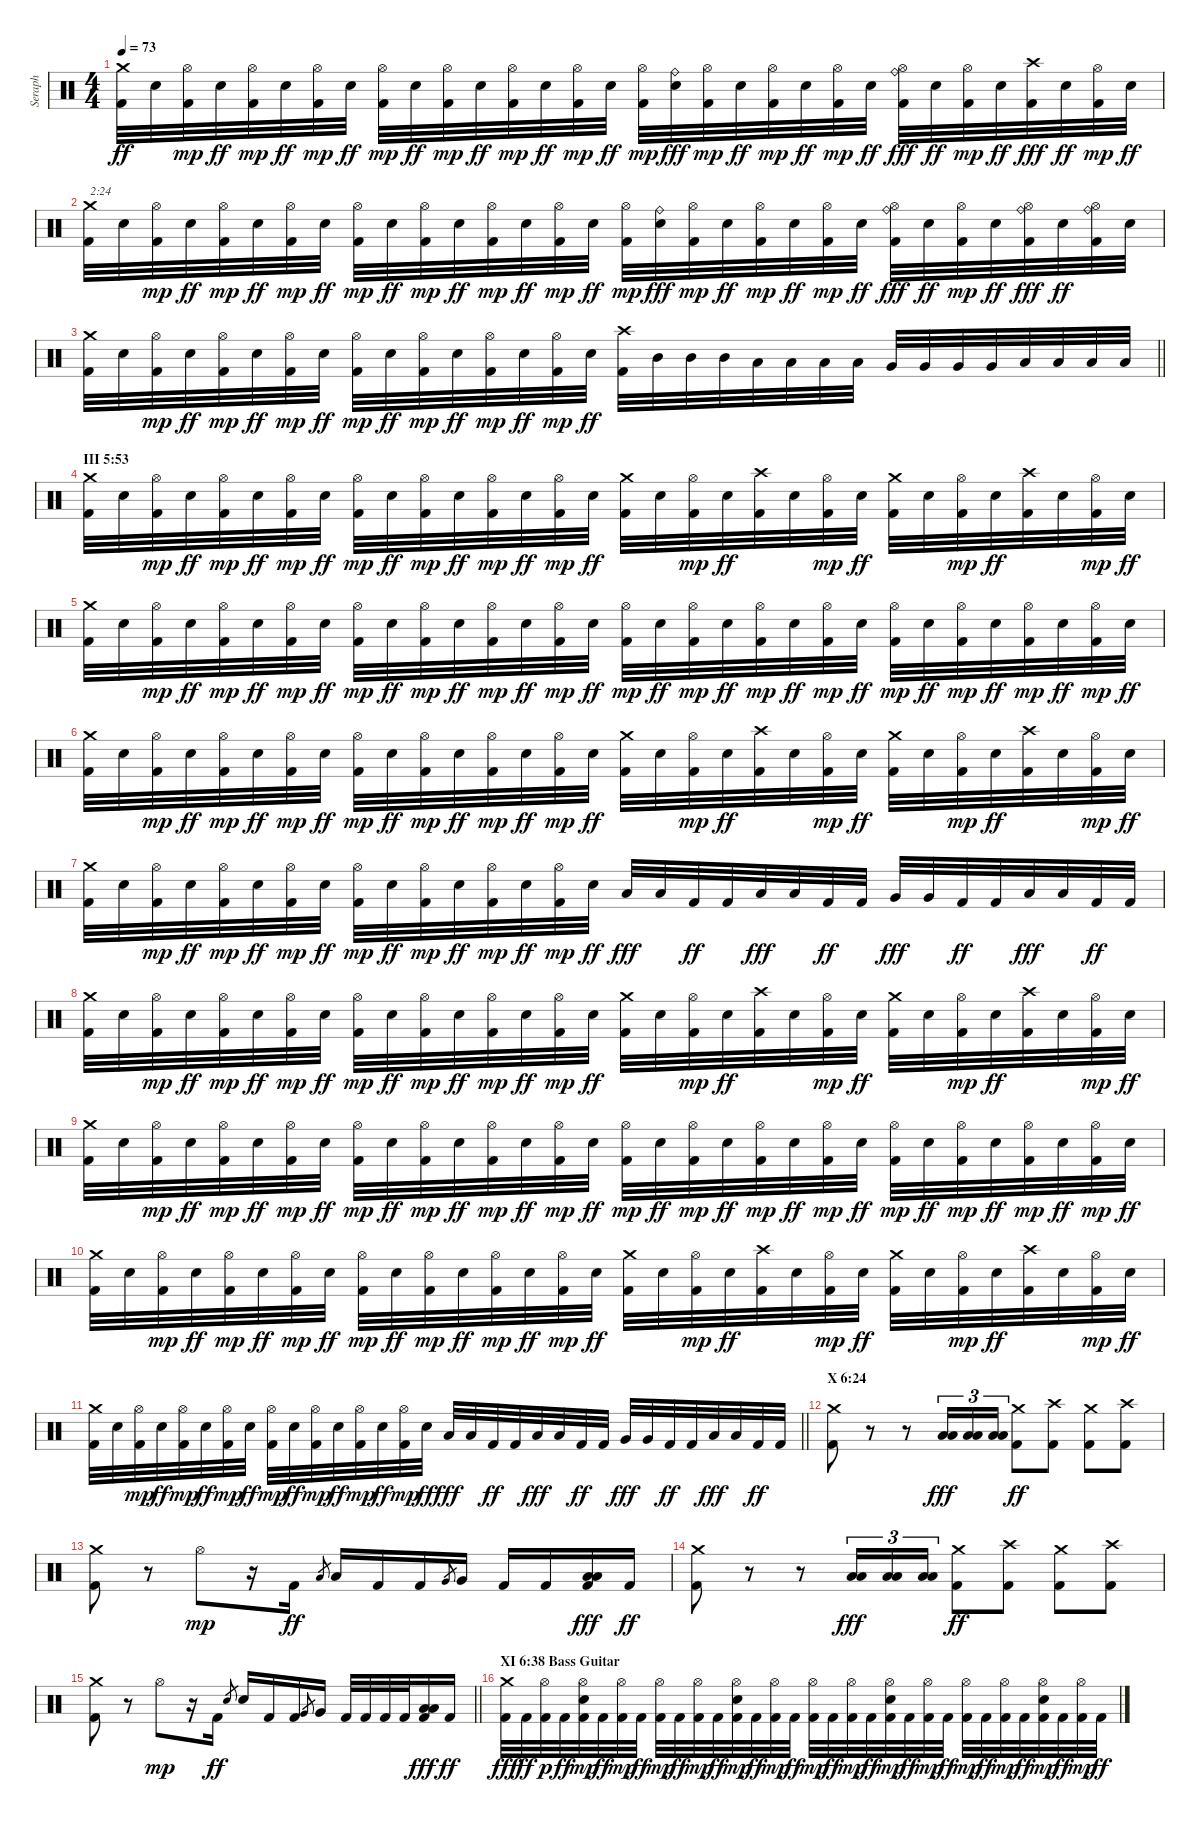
\track ("Seraph" "Seraph") {instrument percussion}
\staff {score}
\articulation defaults
\ts (4 4)
\tempo 73
\clef neutral
\ks c
("Kick (hit) 2" "Crash medium (hit)").32{dy ff} "Electric Snare (hit)".32 ("Kick (hit) 2" "Hi-Hat (open)").32{dy mp} "Electric Snare (hit)".32{dy ff} ("Kick (hit) 2" "Hi-Hat (open)").32{dy mp} "Electric Snare (hit)".32{dy ff} ("Kick (hit) 2" "Hi-Hat (open)").32{dy mp} "Electric Snare (hit)".32{dy ff} ("Kick (hit) 2" "Hi-Hat (open)").32{dy mp} "Electric Snare (hit)".32{dy ff} ("Kick (hit) 2" "Hi-Hat (open)").32{dy mp} "Electric Snare (hit)".32{dy ff} ("Kick (hit) 2" "Hi-Hat (open)").32{dy mp} "Electric Snare (hit)".32{dy ff} ("Kick (hit) 2" "Hi-Hat (open)").32{dy mp} "Electric Snare (hit)".32{dy ff} ("Kick (hit) 2" "Hi-Hat (open)").32{dy mp} ("Electric Snare (hit)" "Ride (bell)").32{dy fff} ("Kick (hit) 2" "Hi-Hat (open)").32{dy mp} "Electric Snare (hit)".32{dy ff} ("Kick (hit) 2" "Hi-Hat (open)").32{dy mp} "Electric Snare (hit)".32{dy ff} ("Kick (hit) 2" "Hi-Hat (open)").32{dy mp} "Electric Snare (hit)".32{dy ff} ("Kick (hit) 2" "Hi-Hat (open)" "Ride (bell)").32{dy fff} "Electric Snare (hit)".32{dy ff} ("Kick (hit) 2" "Hi-Hat (open)").32{dy mp} "Electric Snare (hit)".32{dy ff} ("Kick (hit) 2" "Crash high (hit)").32{dy fff} "Electric Snare (hit)".32{dy ff} ("Kick (hit) 2" "Hi-Hat (open)").32{dy mp} "Electric Snare (hit)".32{dy ff} |
("Kick (hit) 2" "Crash medium (hit)").32{txt "2:24"} "Electric Snare (hit)".32 ("Kick (hit) 2" "Hi-Hat (open)").32{dy mp} "Electric Snare (hit)".32{dy ff} ("Kick (hit) 2" "Hi-Hat (open)").32{dy mp} "Electric Snare (hit)".32{dy ff} ("Kick (hit) 2" "Hi-Hat (open)").32{dy mp} "Electric Snare (hit)".32{dy ff} ("Kick (hit) 2" "Hi-Hat (open)").32{dy mp} "Electric Snare (hit)".32{dy ff} ("Kick (hit) 2" "Hi-Hat (open)").32{dy mp} "Electric Snare (hit)".32{dy ff} ("Kick (hit) 2" "Hi-Hat (open)").32{dy mp} "Electric Snare (hit)".32{dy ff} ("Kick (hit) 2" "Hi-Hat (open)").32{dy mp} "Electric Snare (hit)".32{dy ff} ("Kick (hit) 2" "Hi-Hat (open)").32{dy mp} ("Electric Snare (hit)" "Ride (bell)").32{dy fff} ("Kick (hit) 2" "Hi-Hat (open)").32{dy mp} "Electric Snare (hit)".32{dy ff} ("Kick (hit) 2" "Hi-Hat (open)").32{dy mp} "Electric Snare (hit)".32{dy ff} ("Kick (hit) 2" "Hi-Hat (open)").32{dy mp} "Electric Snare (hit)".32{dy ff} ("Kick (hit) 2" "Hi-Hat (open)" "Ride (bell)").32{dy fff} "Electric Snare (hit)".32{dy ff} ("Kick (hit) 2" "Hi-Hat (open)").32{dy mp} "Electric Snare (hit)".32{dy ff} ("Kick (hit) 2" "Hi-Hat (open)" "Ride (bell)").32{dy fff} "Electric Snare (hit)".32{dy ff} ("Kick (hit) 2" "Hi-Hat (open)" "Ride (bell)").32 "Electric Snare (hit)".32 |
\barLineRight lightlight
("Kick (hit) 2" "Crash medium (hit)").32 "Electric Snare (hit)".32 ("Kick (hit) 2" "Hi-Hat (open)").32{dy mp} "Electric Snare (hit)".32{dy ff} ("Kick (hit) 2" "Hi-Hat (open)").32{dy mp} "Electric Snare (hit)".32{dy ff} ("Kick (hit) 2" "Hi-Hat (open)").32{dy mp} "Electric Snare (hit)".32{dy ff} ("Kick (hit) 2" "Hi-Hat (open)").32{dy mp} "Electric Snare (hit)".32{dy ff} ("Kick (hit) 2" "Hi-Hat (open)").32{dy mp} "Electric Snare (hit)".32{dy ff} ("Kick (hit) 2" "Hi-Hat (open)").32{dy mp} "Electric Snare (hit)".32{dy ff} ("Kick (hit) 2" "Hi-Hat (open)").32{dy mp} "Electric Snare (hit)".32{dy ff} ("Kick (hit) 2" "Crash high (hit)").32 "Mid Tom (hit)".32 "Mid Tom (hit)".32 "Mid Tom (hit)".32 "Low Tom (hit)".32 "Low Tom (hit)".32 "Low Tom (hit)".32 "Low Tom (hit)".32 "Very Low Tom (hit)".32 "Very Low Tom (hit)".32 "Very Low Tom (hit)".32 "Very Low Tom (hit)".32 "Low Floor Tom (hit)".32 "Low Floor Tom (hit)".32 "Low Floor Tom (hit)".32 "Low Floor Tom (hit)".32 |
\section ("" "III 5:53")
("Kick (hit) 2" "Crash medium (hit)").32 "Electric Snare (hit)".32 ("Kick (hit) 2" "Hi-Hat (open)").32{dy mp} "Electric Snare (hit)".32{dy ff} ("Kick (hit) 2" "Hi-Hat (open)").32{dy mp} "Electric Snare (hit)".32{dy ff} ("Kick (hit) 2" "Hi-Hat (open)").32{dy mp} "Electric Snare (hit)".32{dy ff} ("Kick (hit) 2" "Hi-Hat (open)").32{dy mp} "Electric Snare (hit)".32{dy ff} ("Kick (hit) 2" "Hi-Hat (open)").32{dy mp} "Electric Snare (hit)".32{dy ff} ("Kick (hit) 2" "Hi-Hat (open)").32{dy mp} "Electric Snare (hit)".32{dy ff} ("Kick (hit) 2" "Hi-Hat (open)").32{dy mp} "Electric Snare (hit)".32{dy ff} ("Kick (hit) 2" "Crash medium (hit)").32 "Electric Snare (hit)".32 ("Kick (hit) 2" "Hi-Hat (open)").32{dy mp} "Electric Snare (hit)".32{dy ff} ("Kick (hit) 2" "Crash high (hit)").32 "Electric Snare (hit)".32 ("Kick (hit) 2" "Hi-Hat (open)").32{dy mp} "Electric Snare (hit)".32{dy ff} ("Kick (hit) 2" "Crash medium (hit)").32 "Electric Snare (hit)".32 ("Kick (hit) 2" "Hi-Hat (open)").32{dy mp} "Electric Snare (hit)".32{dy ff} ("Kick (hit) 2" "Crash high (hit)").32 "Electric Snare (hit)".32 ("Kick (hit) 2" "Hi-Hat (open)").32{dy mp} "Electric Snare (hit)".32{dy ff} |
("Kick (hit) 2" "Crash medium (hit)").32 "Electric Snare (hit)".32 ("Kick (hit) 2" "Hi-Hat (open)").32{dy mp} "Electric Snare (hit)".32{dy ff} ("Kick (hit) 2" "Hi-Hat (open)").32{dy mp} "Electric Snare (hit)".32{dy ff} ("Kick (hit) 2" "Hi-Hat (open)").32{dy mp} "Electric Snare (hit)".32{dy ff} ("Kick (hit) 2" "Hi-Hat (open)").32{dy mp} "Electric Snare (hit)".32{dy ff} ("Kick (hit) 2" "Hi-Hat (open)").32{dy mp} "Electric Snare (hit)".32{dy ff} ("Kick (hit) 2" "Hi-Hat (open)").32{dy mp} "Electric Snare (hit)".32{dy ff} ("Kick (hit) 2" "Hi-Hat (open)").32{dy mp} "Electric Snare (hit)".32{dy ff} ("Kick (hit) 2" "Hi-Hat (open)").32{dy mp} "Electric Snare (hit)".32{dy ff} ("Kick (hit) 2" "Hi-Hat (open)").32{dy mp} "Electric Snare (hit)".32{dy ff} ("Kick (hit) 2" "Hi-Hat (open)").32{dy mp} "Electric Snare (hit)".32{dy ff} ("Kick (hit) 2" "Hi-Hat (open)").32{dy mp} "Electric Snare (hit)".32{dy ff} ("Kick (hit) 2" "Hi-Hat (open)").32{dy mp} "Electric Snare (hit)".32{dy ff} ("Kick (hit) 2" "Hi-Hat (open)").32{dy mp} "Electric Snare (hit)".32{dy ff} ("Kick (hit) 2" "Hi-Hat (open)").32{dy mp} "Electric Snare (hit)".32{dy ff} ("Kick (hit) 2" "Hi-Hat (open)").32{dy mp} "Electric Snare (hit)".32{dy ff} |
("Kick (hit) 2" "Crash medium (hit)").32 "Electric Snare (hit)".32 ("Kick (hit) 2" "Hi-Hat (open)").32{dy mp} "Electric Snare (hit)".32{dy ff} ("Kick (hit) 2" "Hi-Hat (open)").32{dy mp} "Electric Snare (hit)".32{dy ff} ("Kick (hit) 2" "Hi-Hat (open)").32{dy mp} "Electric Snare (hit)".32{dy ff} ("Kick (hit) 2" "Hi-Hat (open)").32{dy mp} "Electric Snare (hit)".32{dy ff} ("Kick (hit) 2" "Hi-Hat (open)").32{dy mp} "Electric Snare (hit)".32{dy ff} ("Kick (hit) 2" "Hi-Hat (open)").32{dy mp} "Electric Snare (hit)".32{dy ff} ("Kick (hit) 2" "Hi-Hat (open)").32{dy mp} "Electric Snare (hit)".32{dy ff} ("Kick (hit) 2" "Crash medium (hit)").32 "Electric Snare (hit)".32 ("Kick (hit) 2" "Hi-Hat (open)").32{dy mp} "Electric Snare (hit)".32{dy ff} ("Kick (hit) 2" "Crash high (hit)").32 "Electric Snare (hit)".32 ("Kick (hit) 2" "Hi-Hat (open)").32{dy mp} "Electric Snare (hit)".32{dy ff} ("Kick (hit) 2" "Crash medium (hit)").32 "Electric Snare (hit)".32 ("Kick (hit) 2" "Hi-Hat (open)").32{dy mp} "Electric Snare (hit)".32{dy ff} ("Kick (hit) 2" "Crash high (hit)").32 "Electric Snare (hit)".32 ("Kick (hit) 2" "Hi-Hat (open)").32{dy mp} "Electric Snare (hit)".32{dy ff} |
("Kick (hit) 2" "Crash medium (hit)").32 "Electric Snare (hit)".32 ("Kick (hit) 2" "Hi-Hat (open)").32{dy mp} "Electric Snare (hit)".32{dy ff} ("Kick (hit) 2" "Hi-Hat (open)").32{dy mp} "Electric Snare (hit)".32{dy ff} ("Kick (hit) 2" "Hi-Hat (open)").32{dy mp} "Electric Snare (hit)".32{dy ff} ("Kick (hit) 2" "Hi-Hat (open)").32{dy mp} "Electric Snare (hit)".32{dy ff} ("Kick (hit) 2" "Hi-Hat (open)").32{dy mp} "Electric Snare (hit)".32{dy ff} ("Kick (hit) 2" "Hi-Hat (open)").32{dy mp} "Electric Snare (hit)".32{dy ff} ("Kick (hit) 2" "Hi-Hat (open)").32{dy mp} "Electric Snare (hit)".32{dy ff} "Low Tom (hit)".32{dy fff} "Low Tom (hit)".32 "Kick (hit) 2".32{dy ff} "Kick (hit) 2".32 "Low Floor Tom (hit)".32{dy fff} "Low Floor Tom (hit)".32 "Kick (hit) 2".32{dy ff} "Kick (hit) 2".32 "Very Low Tom (hit)".32{dy fff} "Very Low Tom (hit)".32 "Kick (hit) 2".32{dy ff} "Kick (hit) 2".32 "Low Tom (hit)".32{dy fff} "Low Tom (hit)".32 "Kick (hit) 2".32{dy ff} "Kick (hit) 2".32 |
("Kick (hit) 2" "Crash medium (hit)").32 "Electric Snare (hit)".32 ("Kick (hit) 2" "Hi-Hat (open)").32{dy mp} "Electric Snare (hit)".32{dy ff} ("Kick (hit) 2" "Hi-Hat (open)").32{dy mp} "Electric Snare (hit)".32{dy ff} ("Kick (hit) 2" "Hi-Hat (open)").32{dy mp} "Electric Snare (hit)".32{dy ff} ("Kick (hit) 2" "Hi-Hat (open)").32{dy mp} "Electric Snare (hit)".32{dy ff} ("Kick (hit) 2" "Hi-Hat (open)").32{dy mp} "Electric Snare (hit)".32{dy ff} ("Kick (hit) 2" "Hi-Hat (open)").32{dy mp} "Electric Snare (hit)".32{dy ff} ("Kick (hit) 2" "Hi-Hat (open)").32{dy mp} "Electric Snare (hit)".32{dy ff} ("Kick (hit) 2" "Crash medium (hit)").32 "Electric Snare (hit)".32 ("Kick (hit) 2" "Hi-Hat (open)").32{dy mp} "Electric Snare (hit)".32{dy ff} ("Kick (hit) 2" "Crash high (hit)").32 "Electric Snare (hit)".32 ("Kick (hit) 2" "Hi-Hat (open)").32{dy mp} "Electric Snare (hit)".32{dy ff} ("Kick (hit) 2" "Crash medium (hit)").32 "Electric Snare (hit)".32 ("Kick (hit) 2" "Hi-Hat (open)").32{dy mp} "Electric Snare (hit)".32{dy ff} ("Kick (hit) 2" "Crash high (hit)").32 "Electric Snare (hit)".32 ("Kick (hit) 2" "Hi-Hat (open)").32{dy mp} "Electric Snare (hit)".32{dy ff} |
("Kick (hit) 2" "Crash medium (hit)").32 "Electric Snare (hit)".32 ("Kick (hit) 2" "Hi-Hat (open)").32{dy mp} "Electric Snare (hit)".32{dy ff} ("Kick (hit) 2" "Hi-Hat (open)").32{dy mp} "Electric Snare (hit)".32{dy ff} ("Kick (hit) 2" "Hi-Hat (open)").32{dy mp} "Electric Snare (hit)".32{dy ff} ("Kick (hit) 2" "Hi-Hat (open)").32{dy mp} "Electric Snare (hit)".32{dy ff} ("Kick (hit) 2" "Hi-Hat (open)").32{dy mp} "Electric Snare (hit)".32{dy ff} ("Kick (hit) 2" "Hi-Hat (open)").32{dy mp} "Electric Snare (hit)".32{dy ff} ("Kick (hit) 2" "Hi-Hat (open)").32{dy mp} "Electric Snare (hit)".32{dy ff} ("Kick (hit) 2" "Hi-Hat (open)").32{dy mp} "Electric Snare (hit)".32{dy ff} ("Kick (hit) 2" "Hi-Hat (open)").32{dy mp} "Electric Snare (hit)".32{dy ff} ("Kick (hit) 2" "Hi-Hat (open)").32{dy mp} "Electric Snare (hit)".32{dy ff} ("Kick (hit) 2" "Hi-Hat (open)").32{dy mp} "Electric Snare (hit)".32{dy ff} ("Kick (hit) 2" "Hi-Hat (open)").32{dy mp} "Electric Snare (hit)".32{dy ff} ("Kick (hit) 2" "Hi-Hat (open)").32{dy mp} "Electric Snare (hit)".32{dy ff} ("Kick (hit) 2" "Hi-Hat (open)").32{dy mp} "Electric Snare (hit)".32{dy ff} ("Kick (hit) 2" "Hi-Hat (open)").32{dy mp} "Electric Snare (hit)".32{dy ff} |
("Kick (hit) 2" "Crash medium (hit)").32 "Electric Snare (hit)".32 ("Kick (hit) 2" "Hi-Hat (open)").32{dy mp} "Electric Snare (hit)".32{dy ff} ("Kick (hit) 2" "Hi-Hat (open)").32{dy mp} "Electric Snare (hit)".32{dy ff} ("Kick (hit) 2" "Hi-Hat (open)").32{dy mp} "Electric Snare (hit)".32{dy ff} ("Kick (hit) 2" "Hi-Hat (open)").32{dy mp} "Electric Snare (hit)".32{dy ff} ("Kick (hit) 2" "Hi-Hat (open)").32{dy mp} "Electric Snare (hit)".32{dy ff} ("Kick (hit) 2" "Hi-Hat (open)").32{dy mp} "Electric Snare (hit)".32{dy ff} ("Kick (hit) 2" "Hi-Hat (open)").32{dy mp} "Electric Snare (hit)".32{dy ff} ("Kick (hit) 2" "Crash medium (hit)").32 "Electric Snare (hit)".32 ("Kick (hit) 2" "Hi-Hat (open)").32{dy mp} "Electric Snare (hit)".32{dy ff} ("Kick (hit) 2" "Crash high (hit)").32 "Electric Snare (hit)".32 ("Kick (hit) 2" "Hi-Hat (open)").32{dy mp} "Electric Snare (hit)".32{dy ff} ("Kick (hit) 2" "Crash medium (hit)").32 "Electric Snare (hit)".32 ("Kick (hit) 2" "Hi-Hat (open)").32{dy mp} "Electric Snare (hit)".32{dy ff} ("Kick (hit) 2" "Crash high (hit)").32 "Electric Snare (hit)".32 ("Kick (hit) 2" "Hi-Hat (open)").32{dy mp} "Electric Snare (hit)".32{dy ff} |
\barLineRight lightlight
("Kick (hit) 2" "Crash medium (hit)").32 "Electric Snare (hit)".32 ("Kick (hit) 2" "Hi-Hat (open)").32{dy mp} "Electric Snare (hit)".32{dy ff} ("Kick (hit) 2" "Hi-Hat (open)").32{dy mp} "Electric Snare (hit)".32{dy ff} ("Kick (hit) 2" "Hi-Hat (open)").32{dy mp} "Electric Snare (hit)".32{dy ff} ("Kick (hit) 2" "Hi-Hat (open)").32{dy mp} "Electric Snare (hit)".32{dy ff} ("Kick (hit) 2" "Hi-Hat (open)").32{dy mp} "Electric Snare (hit)".32{dy ff} ("Kick (hit) 2" "Hi-Hat (open)").32{dy mp} "Electric Snare (hit)".32{dy ff} ("Kick (hit) 2" "Hi-Hat (open)").32{dy mp} "Electric Snare (hit)".32{dy ff} "Low Tom (hit)".32{dy fff} "Low Tom (hit)".32 "Kick (hit) 2".32{dy ff} "Kick (hit) 2".32 "Low Floor Tom (hit)".32{dy fff} "Low Floor Tom (hit)".32 "Kick (hit) 2".32{dy ff} "Kick (hit) 2".32 "Very Low Tom (hit)".32{dy fff} "Very Low Tom (hit)".32 "Kick (hit) 2".32{dy ff} "Kick (hit) 2".32 "Low Tom (hit)".32{dy fff} "Low Tom (hit)".32 "Kick (hit) 2".32{dy ff} "Kick (hit) 2".32 |
\section ("" "X 6:24")
("Kick (hit) 2" "Crash medium (hit)").8 r.8 r.8 ("Low Floor Tom (hit)" "Low Tom (hit)").16{tu (3 2) dy fff} ("Low Floor Tom (hit)" "Low Tom (hit)").16{tu (3 2)} ("Low Floor Tom (hit)" "Low Tom (hit)").16{tu (3 2)} ("Kick (hit) 2" "Crash medium (hit)").8{dy ff} ("Kick (hit) 2" "Crash high (hit)").8 ("Kick (hit) 2" "Crash medium (hit)").8 ("Kick (hit) 2" "Crash high (hit)").8 |
("Kick (hit) 2" "Crash medium (hit)").8 r.8 "Hi-Hat (open)".8{dy mp} r.16 "Kick (hit) 2".16{dy ff} "Low Tom (hit)".8{gr} "Low Tom (hit)".16 "Kick (hit) 2".16 "Kick (hit) 2".16 "Very Low Tom (hit)".8{gr} "Very Low Tom (hit)".16 "Kick (hit) 2".16 "Kick (hit) 2".16 ("Kick (hit) 2" "Low Floor Tom (hit)" "Low Tom (hit)").16{dy fff} "Kick (hit) 2".16{dy ff} |
("Kick (hit) 2" "Crash medium (hit)").8 r.8 r.8 ("Low Floor Tom (hit)" "Low Tom (hit)").16{tu (3 2) dy fff} ("Low Floor Tom (hit)" "Low Tom (hit)").16{tu (3 2)} ("Low Floor Tom (hit)" "Low Tom (hit)").16{tu (3 2)} ("Kick (hit) 2" "Crash medium (hit)").8{dy ff} ("Kick (hit) 2" "Crash high (hit)").8 ("Kick (hit) 2" "Crash medium (hit)").8 ("Kick (hit) 2" "Crash high (hit)").8 |
\barLineRight lightlight
("Kick (hit) 2" "Crash medium (hit)").8 r.8 "Hi-Hat (open)".8{dy mp} r.16 "Kick (hit) 2".16{dy ff} "Electric Snare (hit)".8{gr} "Electric Snare (hit)".16 "Kick (hit) 2".16 "Kick (hit) 2".16 "Very Low Tom (hit)".8{gr} "Very Low Tom (hit)".16 "Kick (hit) 2".32 "Kick (hit) 2".32 "Kick (hit) 2".32 "Kick (hit) 2".32 ("Kick (hit) 2" "Low Floor Tom (hit)" "Low Tom (hit)").16{dy fff} "Kick (hit) 2".16{dy ff} |
\section ("" "XI 6:38 Bass Guitar")
("Kick (hit) 2" "Crash medium (hit)").32{dy fff} "Kick (hit) 2".32{dy ff} ("Kick (hit) 2" "Hi-Hat (open)").32{dy p} "Kick (hit) 2".32{dy ff} ("Kick (hit) 2" "Electric Snare (hit)" "Hi-Hat (open)").32{dy mp} "Kick (hit) 2".32{dy ff} ("Kick (hit) 2" "Hi-Hat (open)").32{dy mp} "Kick (hit) 2".32{dy ff} ("Kick (hit) 2" "Hi-Hat (open)").32{dy mp} "Kick (hit) 2".32{dy ff} ("Kick (hit) 2" "Hi-Hat (open)").32{dy mp} "Kick (hit) 2".32{dy ff} ("Kick (hit) 2" "Electric Snare (hit)" "Hi-Hat (open)").32{dy mp} "Kick (hit) 2".32{dy ff} ("Kick (hit) 2" "Hi-Hat (open)").32{dy mp} "Kick (hit) 2".32{dy ff} ("Kick (hit) 2" "Hi-Hat (open)").32{dy mp} "Kick (hit) 2".32{dy ff} ("Kick (hit) 2" "Hi-Hat (open)").32{dy mp} "Kick (hit) 2".32{dy ff} ("Kick (hit) 2" "Electric Snare (hit)" "Hi-Hat (open)").32{dy mp} "Kick (hit) 2".32{dy ff} ("Kick (hit) 2" "Hi-Hat (open)").32{dy mp} "Kick (hit) 2".32{dy ff} ("Kick (hit) 2" "Hi-Hat (open)").32{dy mp} "Kick (hit) 2".32{dy ff} ("Kick (hit) 2" "Hi-Hat (open)").32{dy mp} "Kick (hit) 2".32{dy ff} ("Kick (hit) 2" "Electric Snare (hit)" "Hi-Hat (open)").32{dy mp} "Kick (hit) 2".32{dy ff} ("Kick (hit) 2" "Hi-Hat (open)").32{dy mp} "Kick (hit) 2".32{dy ff}
